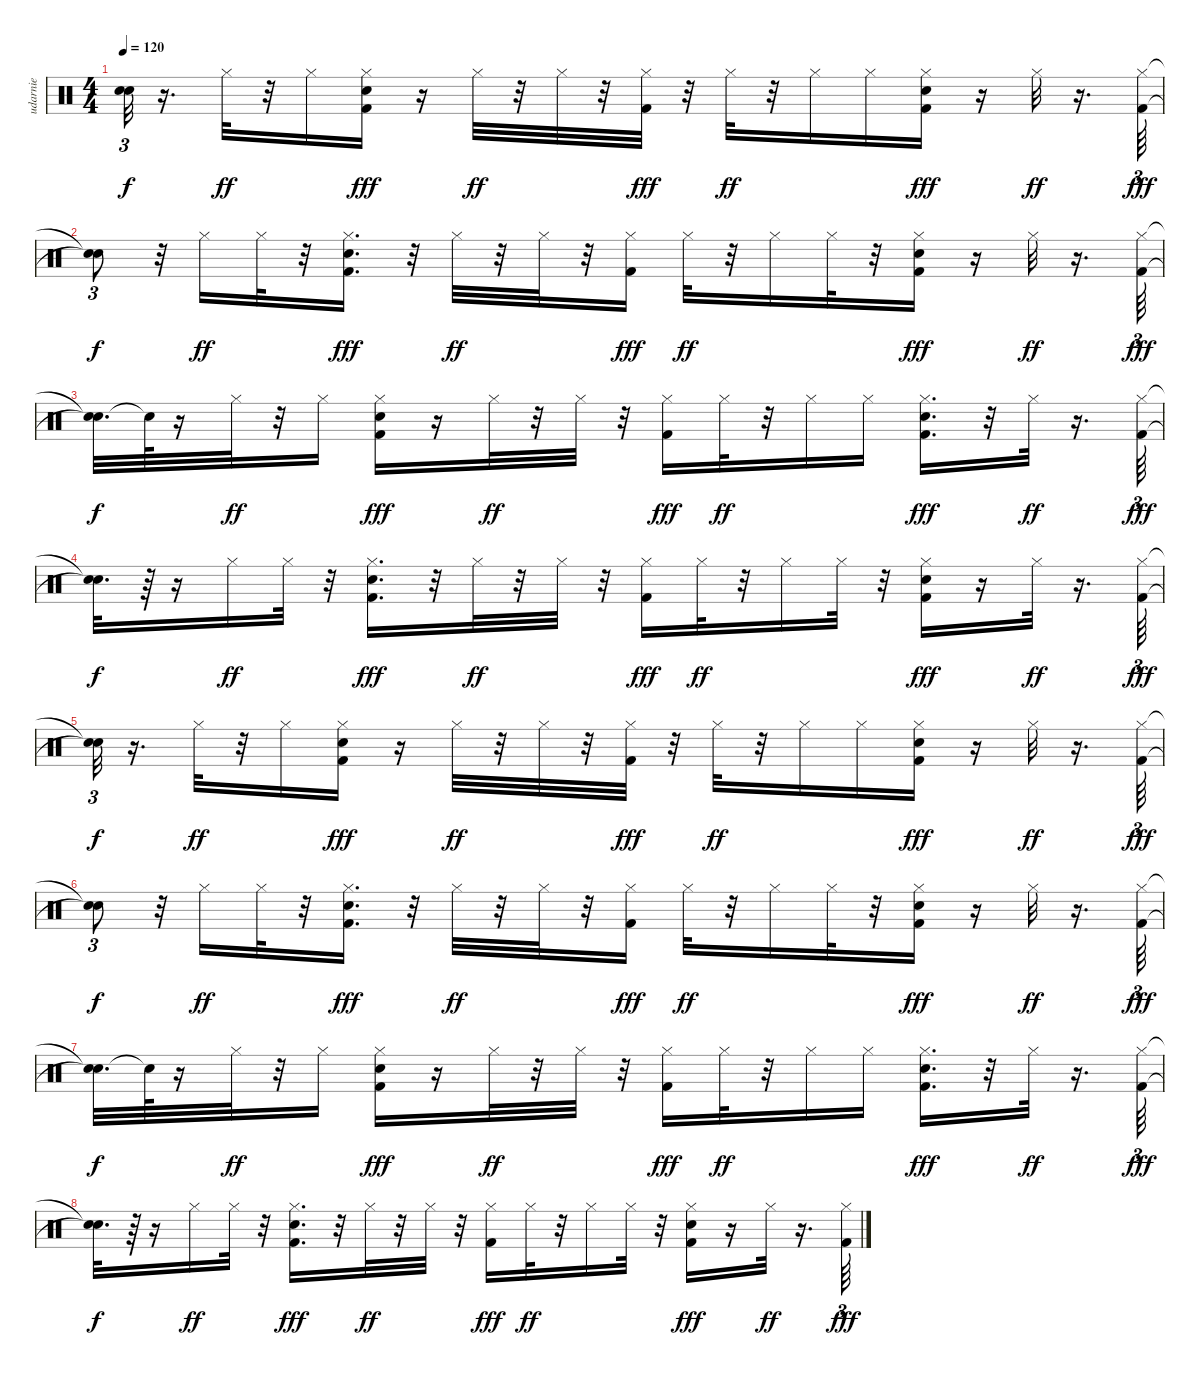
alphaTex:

\track ("udarnie" "udarnie") {instrument percussion}
\staff {score}
\articulation defaults
\ts (4 4)
\tempo 120
\clef neutral
\ks c
("Snare (hit)"{t} "Snare (hit)"{t}).32{tu (3 2) dy f} r.16{d} "Hi-Hat (closed)".32{dy ff} r.32 "Hi-Hat (closed)".16 ("Hi-Hat (closed)" "Electric Snare (hit)" "Kick (hit) 2").16{dy fff} r.16 "Hi-Hat (closed)".32{dy ff} r.32 "Hi-Hat (closed)".32 r.32 ("Hi-Hat (closed)" "Kick (hit) 2").32{dy fff} r.32 "Hi-Hat (closed)".32{dy ff} r.32 "Hi-Hat (closed)".16 "Hi-Hat (closed)".16 ("Hi-Hat (closed)" "Electric Snare (hit)" "Kick (hit) 2").16{dy fff} r.16 "Hi-Hat (closed)".32{dy ff} r.16{d} ("Hi-Hat (closed)" "Kick (hit) 2").64{tu (3 2) dy fff} |
("Snare (hit)"{t} "Snare (hit)"{t}).8{tu (3 2) dy f} r.32 "Hi-Hat (closed)".16{dy ff} "Hi-Hat (closed)".32 r.32 ("Hi-Hat (closed)" "Electric Snare (hit)" "Kick (hit) 2").16{d dy fff} r.32 "Hi-Hat (closed)".32{dy ff} r.32 "Hi-Hat (closed)".32 r.32 ("Hi-Hat (closed)" "Kick (hit) 2").16{dy fff} "Hi-Hat (closed)".32{dy ff} r.32 "Hi-Hat (closed)".16 "Hi-Hat (closed)".32 r.32 ("Hi-Hat (closed)" "Electric Snare (hit)" "Kick (hit) 2").16{dy fff} r.16 "Hi-Hat (closed)".32{dy ff} r.16{d} ("Hi-Hat (closed)" "Kick (hit) 2").64{tu (3 2) dy fff} |
("Snare (hit)"{t} "Snare (hit)"{t}).32{d dy f} "Snare (hit)"{t}.64 r.16 "Hi-Hat (closed)".32{dy ff} r.32 "Hi-Hat (closed)".16 ("Hi-Hat (closed)" "Electric Snare (hit)" "Kick (hit) 2").16{dy fff} r.16 "Hi-Hat (closed)".32{dy ff} r.32 "Hi-Hat (closed)".32 r.32 ("Hi-Hat (closed)" "Kick (hit) 2").16{dy fff} "Hi-Hat (closed)".32{dy ff} r.32 "Hi-Hat (closed)".16 "Hi-Hat (closed)".16 ("Hi-Hat (closed)" "Electric Snare (hit)" "Kick (hit) 2").16{d dy fff} r.32 "Hi-Hat (closed)".32{dy ff} r.16{d} ("Hi-Hat (closed)" "Kick (hit) 2").64{tu (3 2) dy fff} |
("Snare (hit)"{t} "Snare (hit)"{t}).32{d dy f} r.64 r.16 "Hi-Hat (closed)".16{dy ff} "Hi-Hat (closed)".32 r.32 ("Hi-Hat (closed)" "Electric Snare (hit)" "Kick (hit) 2").16{d dy fff} r.32 "Hi-Hat (closed)".32{dy ff} r.32 "Hi-Hat (closed)".32 r.32 ("Hi-Hat (closed)" "Kick (hit) 2").16{dy fff} "Hi-Hat (closed)".32{dy ff} r.32 "Hi-Hat (closed)".16 "Hi-Hat (closed)".32 r.32 ("Hi-Hat (closed)" "Electric Snare (hit)" "Kick (hit) 2").16{dy fff} r.16 "Hi-Hat (closed)".32{dy ff} r.16{d} ("Hi-Hat (closed)" "Kick (hit) 2").64{tu (3 2) dy fff} |
("Snare (hit)"{t} "Snare (hit)"{t}).32{tu (3 2) dy f} r.16{d} "Hi-Hat (closed)".32{dy ff} r.32 "Hi-Hat (closed)".16 ("Hi-Hat (closed)" "Electric Snare (hit)" "Kick (hit) 2").16{dy fff} r.16 "Hi-Hat (closed)".32{dy ff} r.32 "Hi-Hat (closed)".32 r.32 ("Hi-Hat (closed)" "Kick (hit) 2").32{dy fff} r.32 "Hi-Hat (closed)".32{dy ff} r.32 "Hi-Hat (closed)".16 "Hi-Hat (closed)".16 ("Hi-Hat (closed)" "Electric Snare (hit)" "Kick (hit) 2").16{dy fff} r.16 "Hi-Hat (closed)".32{dy ff} r.16{d} ("Hi-Hat (closed)" "Kick (hit) 2").64{tu (3 2) dy fff} |
("Snare (hit)"{t} "Snare (hit)"{t}).8{tu (3 2) dy f} r.32 "Hi-Hat (closed)".16{dy ff} "Hi-Hat (closed)".32 r.32 ("Hi-Hat (closed)" "Electric Snare (hit)" "Kick (hit) 2").16{d dy fff} r.32 "Hi-Hat (closed)".32{dy ff} r.32 "Hi-Hat (closed)".32 r.32 ("Hi-Hat (closed)" "Kick (hit) 2").16{dy fff} "Hi-Hat (closed)".32{dy ff} r.32 "Hi-Hat (closed)".16 "Hi-Hat (closed)".32 r.32 ("Hi-Hat (closed)" "Electric Snare (hit)" "Kick (hit) 2").16{dy fff} r.16 "Hi-Hat (closed)".32{dy ff} r.16{d} ("Hi-Hat (closed)" "Kick (hit) 2").64{tu (3 2) dy fff} |
("Snare (hit)"{t} "Snare (hit)"{t}).32{d dy f} "Snare (hit)"{t}.64 r.16 "Hi-Hat (closed)".32{dy ff} r.32 "Hi-Hat (closed)".16 ("Hi-Hat (closed)" "Electric Snare (hit)" "Kick (hit) 2").16{dy fff} r.16 "Hi-Hat (closed)".32{dy ff} r.32 "Hi-Hat (closed)".32 r.32 ("Hi-Hat (closed)" "Kick (hit) 2").16{dy fff} "Hi-Hat (closed)".32{dy ff} r.32 "Hi-Hat (closed)".16 "Hi-Hat (closed)".16 ("Hi-Hat (closed)" "Electric Snare (hit)" "Kick (hit) 2").16{d dy fff} r.32 "Hi-Hat (closed)".32{dy ff} r.16{d} ("Hi-Hat (closed)" "Kick (hit) 2").64{tu (3 2) dy fff} |
("Snare (hit)"{t} "Snare (hit)"{t}).32{d dy f} r.64 r.16 "Hi-Hat (closed)".16{dy ff} "Hi-Hat (closed)".32 r.32 ("Hi-Hat (closed)" "Electric Snare (hit)" "Kick (hit) 2").16{d dy fff} r.32 "Hi-Hat (closed)".32{dy ff} r.32 "Hi-Hat (closed)".32 r.32 ("Hi-Hat (closed)" "Kick (hit) 2").16{dy fff} "Hi-Hat (closed)".32{dy ff} r.32 "Hi-Hat (closed)".16 "Hi-Hat (closed)".32 r.32 ("Hi-Hat (closed)" "Electric Snare (hit)" "Kick (hit) 2").16{dy fff} r.16 "Hi-Hat (closed)".32{dy ff} r.16{d} ("Hi-Hat (closed)" "Kick (hit) 2").64{tu (3 2) dy fff}
